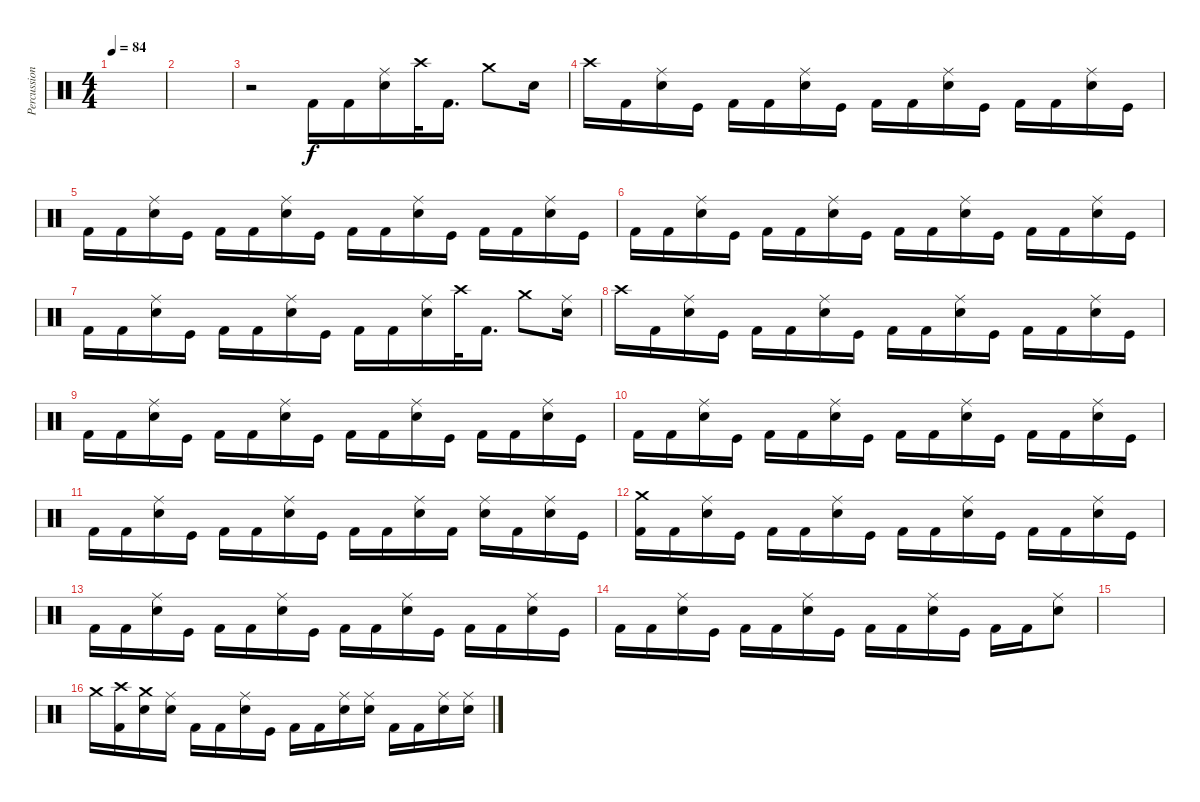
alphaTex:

\track ("Percussion" "Percussion") {instrument percussion}
\staff {score}
\articulation defaults
\ts (4 4)
\tempo 84
\clef neutral
\ks c
|
|
r.2 "Kick (hit) 2".16 "Kick (hit) 2".16 ("Snare (hit) 2" "Ride (middle)").16 "Crash high (hit)".32 "Kick (hit) 2".16{d} "Crash medium (hit)".8 "Snare (hit) 2".16 |
"Crash high (hit)".16 "Kick (hit) 2".16 ("Snare (hit) 2" "Ride (middle)").16 "Kick (hit)".16 "Kick (hit) 2".16 "Kick (hit) 2".16 ("Snare (hit) 2" "Ride (middle)").16 "Kick (hit)".16 "Kick (hit) 2".16 "Kick (hit) 2".16 ("Snare (hit) 2" "Ride (middle)").16 "Kick (hit)".16 "Kick (hit) 2".16 "Kick (hit) 2".16 ("Snare (hit) 2" "Ride (middle)").16 "Kick (hit)".16 |
"Kick (hit) 2".16 "Kick (hit) 2".16 ("Snare (hit) 2" "Ride (middle)").16 "Kick (hit)".16 "Kick (hit) 2".16 "Kick (hit) 2".16 ("Snare (hit) 2" "Ride (middle)").16 "Kick (hit)".16 "Kick (hit) 2".16 "Kick (hit) 2".16 ("Snare (hit) 2" "Ride (middle)").16 "Kick (hit)".16 "Kick (hit) 2".16 "Kick (hit) 2".16 ("Snare (hit) 2" "Ride (middle)").16 "Kick (hit)".16 |
"Kick (hit) 2".16 "Kick (hit) 2".16 ("Snare (hit) 2" "Ride (middle)").16 "Kick (hit)".16 "Kick (hit) 2".16 "Kick (hit) 2".16 ("Snare (hit) 2" "Ride (middle)").16 "Kick (hit)".16 "Kick (hit) 2".16 "Kick (hit) 2".16 ("Snare (hit) 2" "Ride (middle)").16 "Kick (hit)".16 "Kick (hit) 2".16 "Kick (hit) 2".16 ("Snare (hit) 2" "Ride (middle)").16 "Kick (hit)".16 |
"Kick (hit) 2".16 "Kick (hit) 2".16 ("Snare (hit) 2" "Ride (middle)").16 "Kick (hit)".16 "Kick (hit) 2".16 "Kick (hit) 2".16 ("Snare (hit) 2" "Ride (middle)").16 "Kick (hit)".16 "Kick (hit) 2".16 "Kick (hit) 2".16 ("Snare (hit) 2" "Ride (middle)").16 "Crash high (hit)".32 "Kick (hit) 2".16{d} "Crash medium (hit)".8 ("Snare (hit) 2" "Ride (middle)").16 |
"Crash high (hit)".16 "Kick (hit) 2".16 ("Snare (hit) 2" "Ride (middle)").16 "Kick (hit)".16 "Kick (hit) 2".16 "Kick (hit) 2".16 ("Snare (hit) 2" "Ride (middle)").16 "Kick (hit)".16 "Kick (hit) 2".16 "Kick (hit) 2".16 ("Snare (hit) 2" "Ride (middle)").16 "Kick (hit)".16 "Kick (hit) 2".16 "Kick (hit) 2".16 ("Snare (hit) 2" "Ride (middle)").16 "Kick (hit)".16 |
"Kick (hit) 2".16 "Kick (hit) 2".16 ("Snare (hit) 2" "Ride (middle)").16 "Kick (hit)".16 "Kick (hit) 2".16 "Kick (hit) 2".16 ("Snare (hit) 2" "Ride (middle)").16 "Kick (hit)".16 "Kick (hit) 2".16 "Kick (hit) 2".16 ("Snare (hit) 2" "Ride (middle)").16 "Kick (hit)".16 "Kick (hit) 2".16 "Kick (hit) 2".16 ("Snare (hit) 2" "Ride (middle)").16 "Kick (hit)".16 |
"Kick (hit) 2".16 "Kick (hit) 2".16 ("Snare (hit) 2" "Ride (middle)").16 "Kick (hit)".16 "Kick (hit) 2".16 "Kick (hit) 2".16 ("Snare (hit) 2" "Ride (middle)").16 "Kick (hit)".16 "Kick (hit) 2".16 "Kick (hit) 2".16 ("Snare (hit) 2" "Ride (middle)").16 "Kick (hit)".16 "Kick (hit) 2".16 "Kick (hit) 2".16 ("Snare (hit) 2" "Ride (middle)").16 "Kick (hit)".16 |
"Kick (hit) 2".16 "Kick (hit) 2".16 ("Snare (hit) 2" "Ride (middle)").16 "Kick (hit)".16 "Kick (hit) 2".16 "Kick (hit) 2".16 ("Snare (hit) 2" "Ride (middle)").16 "Kick (hit)".16 "Kick (hit) 2".16 "Kick (hit) 2".16 ("Snare (hit) 2" "Ride (middle)").16 "Kick (hit) 2".16 ("Snare (hit) 2" "Ride (middle)").16 "Kick (hit) 2".16 ("Snare (hit) 2" "Ride (middle)").16 "Kick (hit)".16 |
("Kick (hit) 2" "Crash medium (hit)").16 "Kick (hit) 2".16 ("Snare (hit) 2" "Ride (middle)").16 "Kick (hit)".16 "Kick (hit) 2".16 "Kick (hit) 2".16 ("Snare (hit) 2" "Ride (middle)").16 "Kick (hit)".16 "Kick (hit) 2".16 "Kick (hit) 2".16 ("Snare (hit) 2" "Ride (middle)").16 "Kick (hit)".16 "Kick (hit) 2".16 "Kick (hit) 2".16 ("Snare (hit) 2" "Ride (middle)").16 "Kick (hit)".16 |
"Kick (hit) 2".16 "Kick (hit) 2".16 ("Snare (hit) 2" "Ride (middle)").16 "Kick (hit)".16 "Kick (hit) 2".16 "Kick (hit) 2".16 ("Snare (hit) 2" "Ride (middle)").16 "Kick (hit)".16 "Kick (hit) 2".16 "Kick (hit) 2".16 ("Snare (hit) 2" "Ride (middle)").16 "Kick (hit)".16 "Kick (hit) 2".16 "Kick (hit) 2".16 ("Snare (hit) 2" "Ride (middle)").16 "Kick (hit)".16 |
"Kick (hit) 2".16 "Kick (hit) 2".16 ("Snare (hit) 2" "Ride (middle)").16 "Kick (hit)".16 "Kick (hit) 2".16 "Kick (hit) 2".16 ("Snare (hit) 2" "Ride (middle)").16 "Kick (hit)".16 "Kick (hit) 2".16 "Kick (hit) 2".16 ("Snare (hit) 2" "Ride (middle)").16 "Kick (hit)".16 "Kick (hit) 2".16 "Kick (hit) 2".16 ("Snare (hit) 2" "Ride (middle)").8 |
|
"Crash medium (hit)".16 ("Kick (hit) 2" "Crash high (hit)").16 ("Snare (hit) 2" "Crash medium (hit)").16 ("Snare (hit) 2" "Ride (middle)").16 "Kick (hit) 2".16 "Kick (hit) 2".16 ("Snare (hit) 2" "Ride (middle)").16 "Kick (hit)".16 "Kick (hit) 2".16 "Kick (hit) 2".16 ("Snare (hit) 2" "Ride (middle)").16 ("Snare (hit) 2" "Ride (middle)").16 "Kick (hit) 2".16 "Kick (hit) 2".16 ("Snare (hit) 2" "Ride (middle)").16 ("Snare (hit) 2" "Ride (middle)").16
